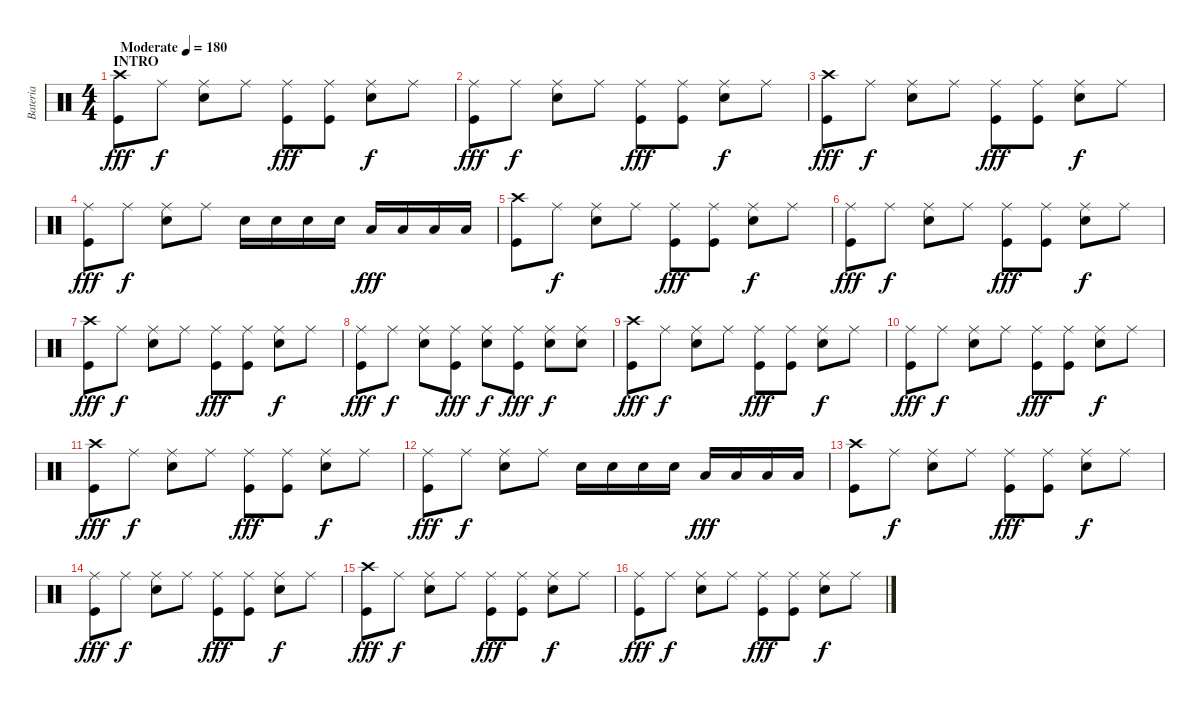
\track ("Bateria" "Bateria") {instrument percussion}
\staff {score}
\articulation defaults
\ts (4 4)
\section ("" "INTRO")
\tempo (180 "Moderate")
\clef neutral
\ks c
("Crash high (hit)" "Kick (hit)").8{dy fff} "Ride (middle)".8{dy f} ("Ride (middle)" "Snare (hit) 2").8 "Ride (middle)".8 ("Ride (middle)" "Kick (hit)").8{dy fff} ("Ride (middle)" "Kick (hit)").8 ("Ride (middle)" "Snare (hit) 2").8{dy f} "Ride (middle)".8 |
("Ride (middle)" "Kick (hit)").8{dy fff} "Ride (middle)".8{dy f} ("Ride (middle)" "Snare (hit) 2").8 "Ride (middle)".8 ("Ride (middle)" "Kick (hit)").8{dy fff} ("Ride (middle)" "Kick (hit)").8 ("Ride (middle)" "Snare (hit) 2").8{dy f} "Ride (middle)".8 |
("Crash high (hit)" "Kick (hit)").8{dy fff} "Ride (middle)".8{dy f} ("Ride (middle)" "Snare (hit) 2").8 "Ride (middle)".8 ("Ride (middle)" "Kick (hit)").8{dy fff} ("Ride (middle)" "Kick (hit)").8 ("Ride (middle)" "Snare (hit) 2").8{dy f} "Ride (middle)".8 |
("Ride (middle)" "Kick (hit)").8{dy fff} "Ride (middle)".8{dy f} ("Ride (middle)" "Snare (hit) 2").8 "Ride (middle)".8 "Snare (hit) 2".16 "Snare (hit) 2".16 "Snare (hit) 2".16 "Snare (hit) 2".16 "Low Tom (hit)".16{dy fff} "Low Tom (hit)".16 "Low Tom (hit)".16 "Low Tom (hit)".16 |
("Crash high (hit)" "Kick (hit)").8 "Ride (middle)".8{dy f} ("Ride (middle)" "Snare (hit) 2").8 "Ride (middle)".8 ("Ride (middle)" "Kick (hit)").8{dy fff} ("Ride (middle)" "Kick (hit)").8 ("Ride (middle)" "Snare (hit) 2").8{dy f} "Ride (middle)".8 |
("Ride (middle)" "Kick (hit)").8{dy fff} "Ride (middle)".8{dy f} ("Ride (middle)" "Snare (hit) 2").8 "Ride (middle)".8 ("Ride (middle)" "Kick (hit)").8{dy fff} ("Ride (middle)" "Kick (hit)").8 ("Ride (middle)" "Snare (hit) 2").8{dy f} "Ride (middle)".8 |
("Crash high (hit)" "Kick (hit)").8{dy fff} "Ride (middle)".8{dy f} ("Ride (middle)" "Snare (hit) 2").8 "Ride (middle)".8 ("Ride (middle)" "Kick (hit)").8{dy fff} ("Ride (middle)" "Kick (hit)").8 ("Ride (middle)" "Snare (hit) 2").8{dy f} "Ride (middle)".8 |
("Ride (middle)" "Kick (hit)").8{dy fff} "Ride (middle)".8{dy f} ("Ride (middle)" "Snare (hit) 2").8 ("Ride (middle)" "Kick (hit)").8{dy fff} ("Ride (middle)" "Snare (hit) 2").8{dy f} ("Ride (middle)" "Kick (hit)").8{dy fff} ("Ride (middle)" "Snare (hit) 2").8{dy f} ("Ride (middle)" "Snare (hit) 2").8 |
("Crash high (hit)" "Kick (hit)").8{dy fff} "Ride (middle)".8{dy f} ("Ride (middle)" "Snare (hit) 2").8 "Ride (middle)".8 ("Ride (middle)" "Kick (hit)").8{dy fff} ("Ride (middle)" "Kick (hit)").8 ("Ride (middle)" "Snare (hit) 2").8{dy f} "Ride (middle)".8 |
("Ride (middle)" "Kick (hit)").8{dy fff} "Ride (middle)".8{dy f} ("Ride (middle)" "Snare (hit) 2").8 "Ride (middle)".8 ("Ride (middle)" "Kick (hit)").8{dy fff} ("Ride (middle)" "Kick (hit)").8 ("Ride (middle)" "Snare (hit) 2").8{dy f} "Ride (middle)".8 |
("Crash high (hit)" "Kick (hit)").8{dy fff} "Ride (middle)".8{dy f} ("Ride (middle)" "Snare (hit) 2").8 "Ride (middle)".8 ("Ride (middle)" "Kick (hit)").8{dy fff} ("Ride (middle)" "Kick (hit)").8 ("Ride (middle)" "Snare (hit) 2").8{dy f} "Ride (middle)".8 |
("Ride (middle)" "Kick (hit)").8{dy fff} "Ride (middle)".8{dy f} ("Ride (middle)" "Snare (hit) 2").8 "Ride (middle)".8 "Snare (hit) 2".16 "Snare (hit) 2".16 "Snare (hit) 2".16 "Snare (hit) 2".16 "Low Tom (hit)".16{dy fff} "Low Tom (hit)".16 "Low Tom (hit)".16 "Low Tom (hit)".16 |
("Crash high (hit)" "Kick (hit)").8 "Ride (middle)".8{dy f} ("Ride (middle)" "Snare (hit) 2").8 "Ride (middle)".8 ("Ride (middle)" "Kick (hit)").8{dy fff} ("Ride (middle)" "Kick (hit)").8 ("Ride (middle)" "Snare (hit) 2").8{dy f} "Ride (middle)".8 |
("Ride (middle)" "Kick (hit)").8{dy fff} "Ride (middle)".8{dy f} ("Ride (middle)" "Snare (hit) 2").8 "Ride (middle)".8 ("Ride (middle)" "Kick (hit)").8{dy fff} ("Ride (middle)" "Kick (hit)").8 ("Ride (middle)" "Snare (hit) 2").8{dy f} "Ride (middle)".8 |
("Crash high (hit)" "Kick (hit)").8{dy fff} "Ride (middle)".8{dy f} ("Ride (middle)" "Snare (hit) 2").8 "Ride (middle)".8 ("Ride (middle)" "Kick (hit)").8{dy fff} ("Ride (middle)" "Kick (hit)").8 ("Ride (middle)" "Snare (hit) 2").8{dy f} "Ride (middle)".8 |
("Ride (middle)" "Kick (hit)").8{dy fff} "Ride (middle)".8{dy f} ("Ride (middle)" "Snare (hit) 2").8 "Ride (middle)".8 ("Ride (middle)" "Kick (hit)").8{dy fff} ("Ride (middle)" "Kick (hit)").8 ("Ride (middle)" "Snare (hit) 2").8{dy f} "Ride (middle)".8
